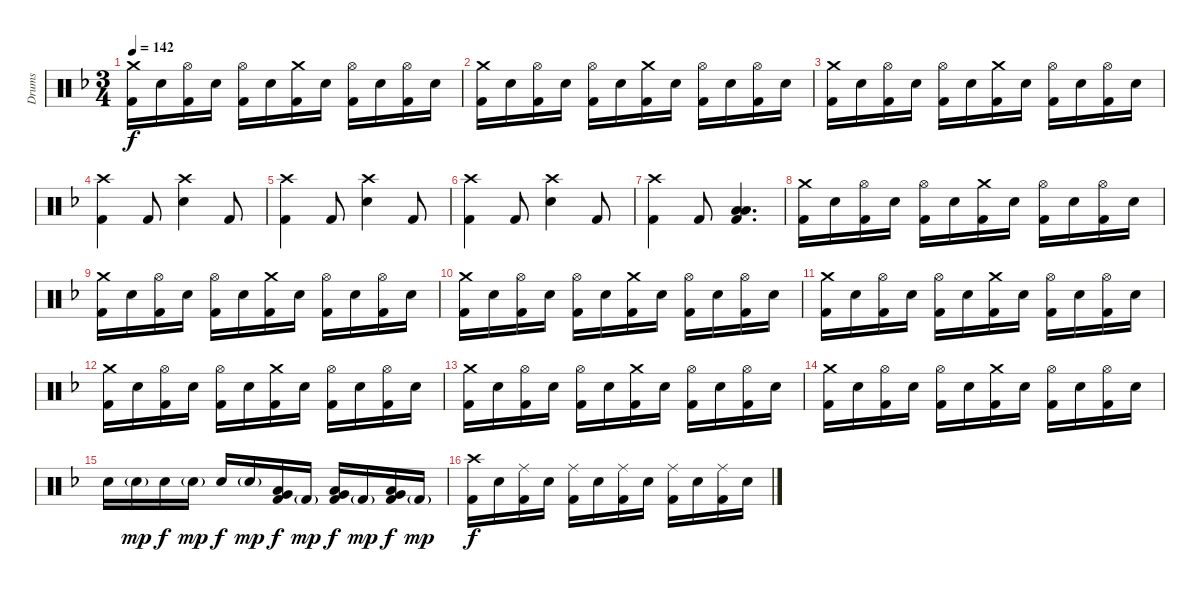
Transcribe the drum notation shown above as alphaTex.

\track ("Drums" "Drums") {instrument percussion}
\staff {score}
\articulation defaults
\ts (3 4)
\tempo 142
\clef neutral
\ks dminor
("Crash medium (hit)" "Kick (hit) 2").16{dy f} "Electric Snare (hit)".16 ("Hi-Hat (open)" "Kick (hit) 2").16 "Electric Snare (hit)".16 ("Hi-Hat (open)" "Kick (hit) 2").16 "Electric Snare (hit)".16 ("Crash medium (hit)" "Kick (hit) 2").16 "Electric Snare (hit)".16 ("Hi-Hat (open)" "Kick (hit) 2").16 "Electric Snare (hit)".16 ("Hi-Hat (open)" "Kick (hit) 2").16 "Electric Snare (hit)".16 |
("Crash medium (hit)" "Kick (hit) 2").16 "Electric Snare (hit)".16 ("Hi-Hat (open)" "Kick (hit) 2").16 "Electric Snare (hit)".16 ("Hi-Hat (open)" "Kick (hit) 2").16 "Electric Snare (hit)".16 ("Crash medium (hit)" "Kick (hit) 2").16 "Electric Snare (hit)".16 ("Hi-Hat (open)" "Kick (hit) 2").16 "Electric Snare (hit)".16 ("Hi-Hat (open)" "Kick (hit) 2").16 "Electric Snare (hit)".16 |
("Crash medium (hit)" "Kick (hit) 2").16 "Electric Snare (hit)".16 ("Hi-Hat (open)" "Kick (hit) 2").16 "Electric Snare (hit)".16 ("Hi-Hat (open)" "Kick (hit) 2").16 "Electric Snare (hit)".16 ("Crash medium (hit)" "Kick (hit) 2").16 "Electric Snare (hit)".16 ("Hi-Hat (open)" "Kick (hit) 2").16 "Electric Snare (hit)".16 ("Hi-Hat (open)" "Kick (hit) 2").16 "Electric Snare (hit)".16 |
("Crash high (hit)" "Kick (hit) 2").4 "Kick (hit) 2".8 ("Crash high (hit)" "Electric Snare (hit)").4 "Kick (hit) 2".8 |
("Crash high (hit)" "Kick (hit) 2").4 "Kick (hit) 2".8 ("Crash high (hit)" "Electric Snare (hit)").4 "Kick (hit) 2".8 |
("Crash high (hit)" "Kick (hit) 2").4 "Kick (hit) 2".8 ("Crash high (hit)" "Electric Snare (hit)").4 "Kick (hit) 2".8 |
("Crash high (hit)" "Kick (hit) 2").4 "Kick (hit) 2".8 ("Low Tom (hit)" "Low Floor Tom (hit)" "Kick (hit) 2").4{d} |
("Crash medium (hit)" "Kick (hit) 2").16 "Electric Snare (hit)".16 ("Hi-Hat (open)" "Kick (hit) 2").16 "Electric Snare (hit)".16 ("Hi-Hat (open)" "Kick (hit) 2").16 "Electric Snare (hit)".16 ("Crash medium (hit)" "Kick (hit) 2").16 "Electric Snare (hit)".16 ("Hi-Hat (open)" "Kick (hit) 2").16 "Electric Snare (hit)".16 ("Hi-Hat (open)" "Kick (hit) 2").16 "Electric Snare (hit)".16 |
("Crash medium (hit)" "Kick (hit) 2").16 "Electric Snare (hit)".16 ("Hi-Hat (open)" "Kick (hit) 2").16 "Electric Snare (hit)".16 ("Hi-Hat (open)" "Kick (hit) 2").16 "Electric Snare (hit)".16 ("Crash medium (hit)" "Kick (hit) 2").16 "Electric Snare (hit)".16 ("Hi-Hat (open)" "Kick (hit) 2").16 "Electric Snare (hit)".16 ("Hi-Hat (open)" "Kick (hit) 2").16 "Electric Snare (hit)".16 |
("Crash medium (hit)" "Kick (hit) 2").16 "Electric Snare (hit)".16 ("Hi-Hat (open)" "Kick (hit) 2").16 "Electric Snare (hit)".16 ("Hi-Hat (open)" "Kick (hit) 2").16 "Electric Snare (hit)".16 ("Crash medium (hit)" "Kick (hit) 2").16 "Electric Snare (hit)".16 ("Hi-Hat (open)" "Kick (hit) 2").16 "Electric Snare (hit)".16 ("Hi-Hat (open)" "Kick (hit) 2").16 "Electric Snare (hit)".16 |
("Crash medium (hit)" "Kick (hit) 2").16 "Electric Snare (hit)".16 ("Hi-Hat (open)" "Kick (hit) 2").16 "Electric Snare (hit)".16 ("Hi-Hat (open)" "Kick (hit) 2").16 "Electric Snare (hit)".16 ("Crash medium (hit)" "Kick (hit) 2").16 "Electric Snare (hit)".16 ("Hi-Hat (open)" "Kick (hit) 2").16 "Electric Snare (hit)".16 ("Hi-Hat (open)" "Kick (hit) 2").16 "Electric Snare (hit)".16 |
("Crash medium (hit)" "Kick (hit) 2").16 "Electric Snare (hit)".16 ("Hi-Hat (open)" "Kick (hit) 2").16 "Electric Snare (hit)".16 ("Hi-Hat (open)" "Kick (hit) 2").16 "Electric Snare (hit)".16 ("Crash medium (hit)" "Kick (hit) 2").16 "Electric Snare (hit)".16 ("Hi-Hat (open)" "Kick (hit) 2").16 "Electric Snare (hit)".16 ("Hi-Hat (open)" "Kick (hit) 2").16 "Electric Snare (hit)".16 |
("Crash medium (hit)" "Kick (hit) 2").16 "Electric Snare (hit)".16 ("Hi-Hat (open)" "Kick (hit) 2").16 "Electric Snare (hit)".16 ("Hi-Hat (open)" "Kick (hit) 2").16 "Electric Snare (hit)".16 ("Crash medium (hit)" "Kick (hit) 2").16 "Electric Snare (hit)".16 ("Hi-Hat (open)" "Kick (hit) 2").16 "Electric Snare (hit)".16 ("Hi-Hat (open)" "Kick (hit) 2").16 "Electric Snare (hit)".16 |
("Crash medium (hit)" "Kick (hit) 2").16 "Electric Snare (hit)".16 ("Hi-Hat (open)" "Kick (hit) 2").16 "Electric Snare (hit)".16 ("Hi-Hat (open)" "Kick (hit) 2").16 "Electric Snare (hit)".16 ("Crash medium (hit)" "Kick (hit) 2").16 "Electric Snare (hit)".16 ("Hi-Hat (open)" "Kick (hit) 2").16 "Electric Snare (hit)".16 ("Hi-Hat (open)" "Kick (hit) 2").16 "Electric Snare (hit)".16 |
"Electric Snare (hit)".16 "Electric Snare (hit)"{g}.16{dy mp} "Electric Snare (hit)".16{dy f} "Electric Snare (hit)"{g}.16{dy mp} "Electric Snare (hit)".16{dy f} "Electric Snare (hit)"{g}.16{dy mp} ("Low Floor Tom (hit)" "Very Low Tom (hit)" "Kick (hit) 2").16{dy f} "Kick (hit) 2"{g}.16{dy mp} ("Low Floor Tom (hit)" "Very Low Tom (hit)" "Kick (hit) 2").16{dy f} "Kick (hit) 2"{g}.16{dy mp} ("Low Floor Tom (hit)" "Very Low Tom (hit)" "Kick (hit) 2").16{dy f} "Kick (hit) 2"{g}.16{dy mp} |
("Crash high (hit)" "Kick (hit) 2").16{dy f} "Electric Snare (hit)".16 ("Ride (middle)" "Kick (hit) 2").16 "Electric Snare (hit)".16 ("Ride (middle)" "Kick (hit) 2").16 "Electric Snare (hit)".16 ("Ride (middle)" "Kick (hit) 2").16 "Electric Snare (hit)".16 ("Ride (middle)" "Kick (hit) 2").16 "Electric Snare (hit)".16 ("Ride (middle)" "Kick (hit) 2").16 "Electric Snare (hit)".16
